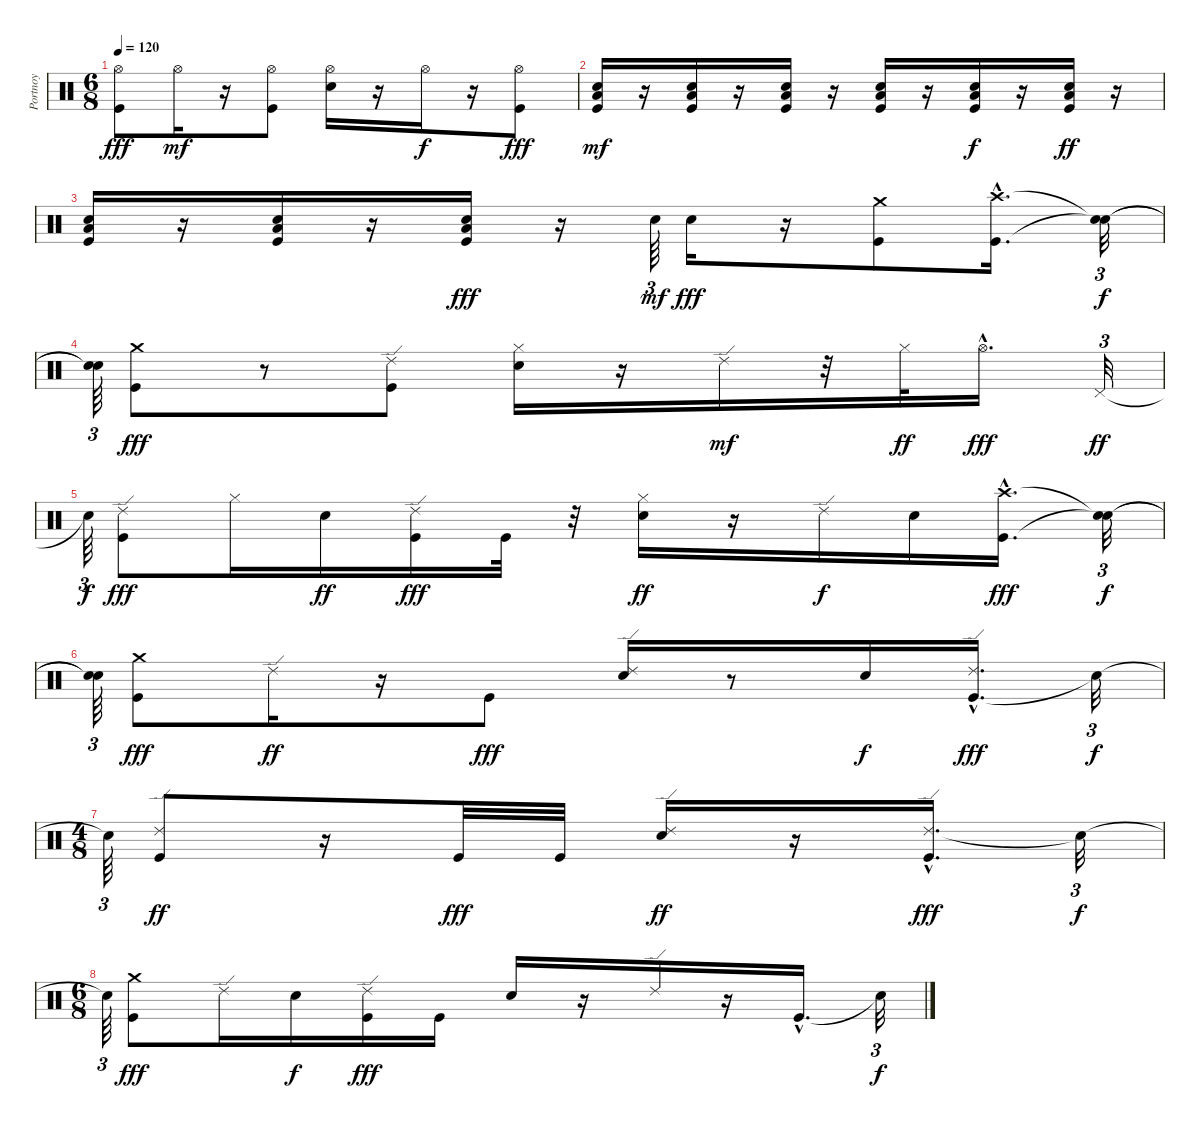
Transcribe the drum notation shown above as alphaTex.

\track ("Portnoy" "Portnoy") {instrument percussion}
\staff {score}
\articulation defaults
\ts (6 8)
\tempo 120
\clef neutral
\ks c
("Hi-Hat (open)" "Kick (hit)").8{dy fff} "Hi-Hat (open)".16{dy mf} r.16 ("Kick (hit)" "Hi-Hat (open)").8 ("Snare (hit) 2" "Hi-Hat (open)").16 r.16 "Hi-Hat (open)".16{dy f} r.16 ("Kick (hit)" "Hi-Hat (open)").8{dy fff} |
("Snare (hit) 2" "Kick (hit)" "Low Floor Tom (hit)").16{dy mf} r.16 ("Low Floor Tom (hit)" "Kick (hit)" "Snare (hit) 2").16 r.16 ("Low Floor Tom (hit)" "Kick (hit)" "Snare (hit) 2").16 r.16 ("Snare (hit) 2" "Low Floor Tom (hit)" "Kick (hit)").16 r.16 ("Low Floor Tom (hit)" "Kick (hit)" "Snare (hit) 2").16{dy f} r.16 ("Snare (hit) 2" "Kick (hit)" "Low Floor Tom (hit)").16{dy ff} r.16 |
("Snare (hit) 2" "Kick (hit)" "Low Floor Tom (hit)").16 r.16 ("Snare (hit) 2" "Kick (hit)" "Low Floor Tom (hit)").16 r.16 ("Snare (hit) 2" "Kick (hit)" "Low Floor Tom (hit)").16{dy fff} r.16 "Snare (hit) 2".64{tu (3 2) dy mf} "Snare (hit) 2".16{dy fff} r.16 ("Crash medium (hit)" "Kick (hit)").8 ("Kick (hit)"{hac} "Crash high (hit)"{hac}).16{d} ("Snare (hit)"{t} "Snare (hit)"{t}).32{tu (3 2) dy f} |
("Snare (hit)"{t} "Snare (hit)"{t}).64{tu (3 2)} ("Crash medium (hit)" "Kick (hit)").8{dy fff} r.8 ("Ride (edge) 2" "Kick (hit)").8 ("Hi-Hat (closed)" "Snare (hit) 2").16 r.16 "Ride (edge) 2".16{dy mf} r.32 "Hi-Hat (closed)".32{dy ff} "Hi-Hat (open)"{hac}.16{d dy fff} "Pedal Hi-Hat (hit)".32{tu (3 2) dy ff} |
"Snare (hit)"{t}.64{tu (3 2) dy f} ("Ride (edge) 2" "Kick (hit)").8{dy fff} "Hi-Hat (closed)".16 "Snare (hit) 2".16{dy ff} ("Ride (edge) 2" "Kick (hit)").16{dy fff} "Kick (hit)".32 r.32 ("Snare (hit) 2" "Hi-Hat (closed)").16{dy ff} r.16 "Ride (edge) 2".16{dy f} "Snare (hit) 2".16 ("Kick (hit)"{hac} "Crash high (hit)"{hac}).16{d dy fff} ("Snare (hit)"{t} "Snare (hit)"{t}).32{tu (3 2) dy f} |
("Snare (hit)"{t} "Snare (hit)"{t}).64{tu (3 2)} ("Kick (hit)" "Crash medium (hit)").8{dy fff} "Ride (edge) 2".16{dy ff} r.16 "Kick (hit)".8{dy fff} ("Snare (hit) 2" "Ride (edge) 2").16 r.8 "Snare (hit) 2".16{dy f} ("Kick (hit)"{hac} "Ride (edge) 2").16{d dy fff} "Snare (hit)"{t}.32{tu (3 2) dy f} |
\ts (4 8)
"Snare (hit)"{t}.64{tu (3 2)} ("Kick (hit)" "Ride (edge) 2").8{dy ff} r.16 "Kick (hit)".32{dy fff} "Kick (hit)".32 ("Snare (hit) 2" "Ride (edge) 2").16{dy ff} r.16 ("Ride (edge) 2" "Kick (hit)"{hac}).16{d dy fff} "Snare (hit)"{t}.32{tu (3 2) dy f} |
\ts (6 8)
"Snare (hit)"{t}.64{tu (3 2)} ("Crash medium (hit)" "Kick (hit)").8{dy fff} "Ride (edge) 2".16 "Snare (hit) 2".16{dy f} ("Kick (hit)" "Ride (edge) 2").16{dy fff} "Kick (hit)".16 "Snare (hit) 2".16 r.16 "Ride (edge) 2".16 r.16 "Kick (hit)"{hac}.16{d} "Snare (hit)"{t}.32{tu (3 2) dy f}
